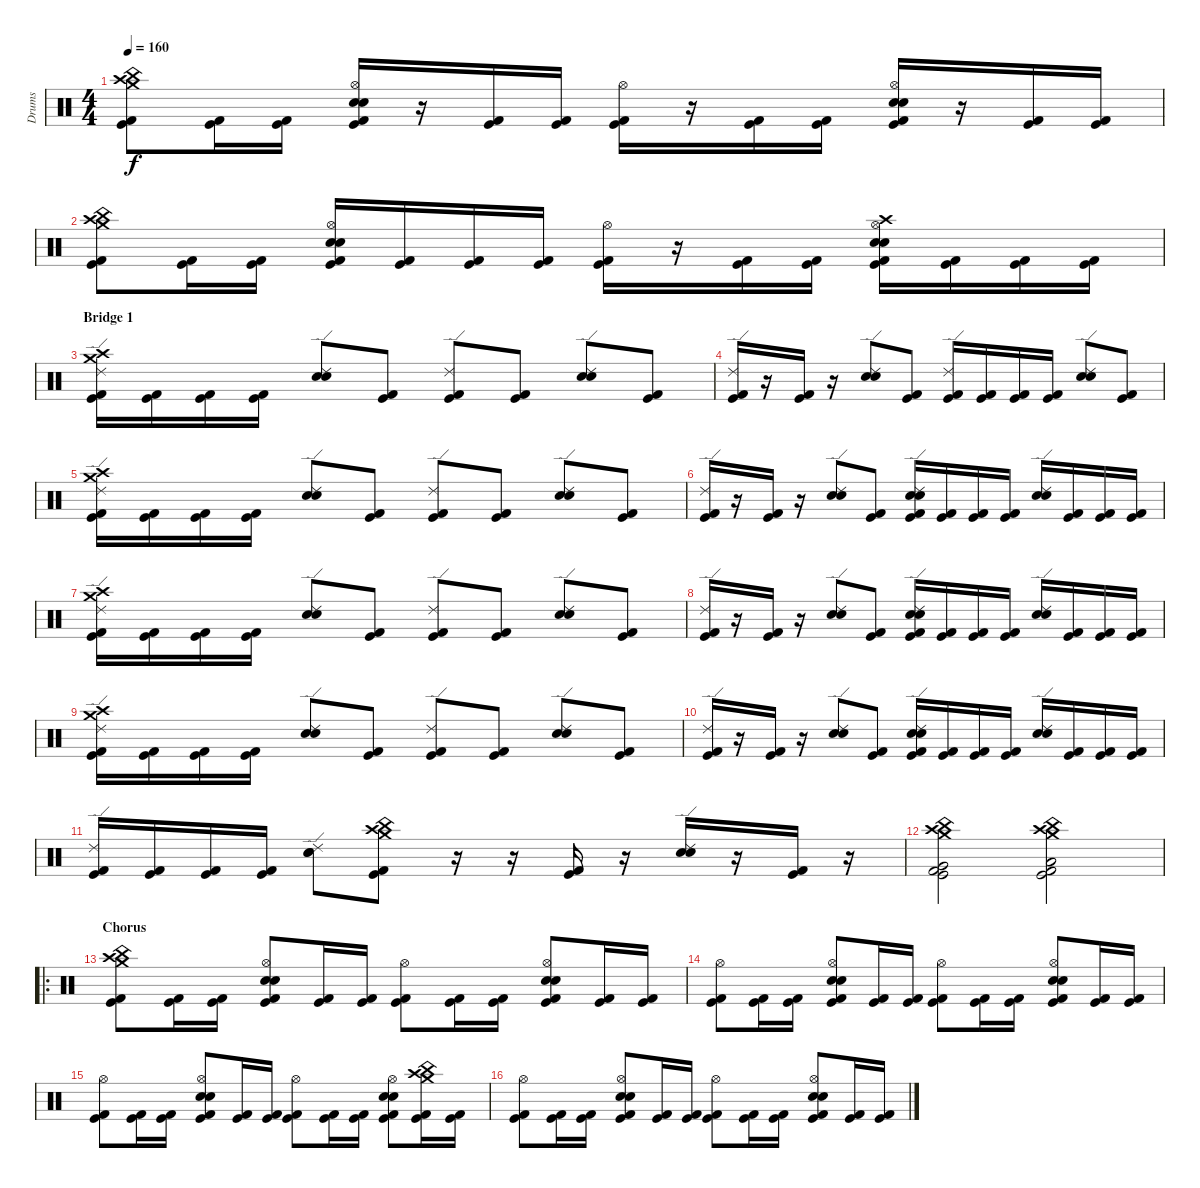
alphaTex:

\track ("Drums" "Drums") {instrument percussion}
\staff {score}
\articulation defaults
\ts (4 4)
\tempo 160
\clef neutral
\ks c
("Crash medium (hit)" "Crash high (hit)" "China (hit)" "Kick (hit)" "Kick (hit) 2").8{dy f} ("Kick (hit) 2" "Kick (hit)").16 ("Kick (hit) 2" "Kick (hit)").16 ("Hi-Hat (open)" "Electric Snare (hit)" "Snare (hit) 2" "Kick (hit) 2" "Kick (hit)").16 r.16 ("Kick (hit) 2" "Kick (hit)").16 ("Kick (hit) 2" "Kick (hit)").16 ("Hi-Hat (open)" "Kick (hit) 2" "Kick (hit)").16 r.16 ("Kick (hit) 2" "Kick (hit)").16 ("Kick (hit) 2" "Kick (hit)").16 ("Hi-Hat (open)" "Electric Snare (hit)" "Snare (hit) 2" "Kick (hit) 2" "Kick (hit)").16 r.16 ("Kick (hit) 2" "Kick (hit)").16 ("Kick (hit) 2" "Kick (hit)").16 |
("Crash medium (hit)" "Crash high (hit)" "China (hit)" "Kick (hit) 2" "Kick (hit)").8 ("Kick (hit) 2" "Kick (hit)").16 ("Kick (hit) 2" "Kick (hit)").16 ("Hi-Hat (open)" "Snare (hit) 2" "Electric Snare (hit)" "Kick (hit) 2" "Kick (hit)").16 ("Kick (hit) 2" "Kick (hit)").16 ("Kick (hit) 2" "Kick (hit)").16 ("Kick (hit) 2" "Kick (hit)").16 ("Hi-Hat (open)" "Kick (hit) 2" "Kick (hit)").16 r.16 ("Kick (hit) 2" "Kick (hit)").16 ("Kick (hit) 2" "Kick (hit)").16 ("Crash high (hit)" "Hi-Hat (open)" "Snare (hit) 2" "Electric Snare (hit)" "Kick (hit) 2" "Kick (hit)").16 ("Kick (hit) 2" "Kick (hit)").16 ("Kick (hit) 2" "Kick (hit)").16 ("Kick (hit) 2" "Kick (hit)").16 |
\section ("" "Bridge 1")
("Crash high (hit)" "Crash medium (hit)" "Ride (edge) 2" "Kick (hit) 2" "Kick (hit)").16 ("Kick (hit) 2" "Kick (hit)").16 ("Kick (hit) 2" "Kick (hit)").16 ("Kick (hit) 2" "Kick (hit)").16 ("Ride (edge) 2" "Electric Snare (hit)" "Snare (hit) 2").8 ("Kick (hit) 2" "Kick (hit)").8 ("Ride (edge) 2" "Kick (hit) 2" "Kick (hit)").8 ("Kick (hit) 2" "Kick (hit)").8 ("Ride (edge) 2" "Electric Snare (hit)" "Snare (hit) 2").8 ("Kick (hit) 2" "Kick (hit)").8 |
("Ride (edge) 2" "Kick (hit) 2" "Kick (hit)").16 r.16 ("Kick (hit) 2" "Kick (hit)").16 r.16 ("Ride (edge) 2" "Electric Snare (hit)" "Snare (hit) 2").8 ("Kick (hit) 2" "Kick (hit)").8 ("Ride (edge) 2" "Kick (hit) 2" "Kick (hit)").16 ("Kick (hit) 2" "Kick (hit)").16 ("Kick (hit)" "Kick (hit) 2").16 ("Kick (hit)" "Kick (hit) 2").16 ("Ride (edge) 2" "Electric Snare (hit)" "Snare (hit) 2").8 ("Kick (hit) 2" "Kick (hit)").8 |
("Crash high (hit)" "Crash medium (hit)" "Ride (edge) 2" "Kick (hit) 2" "Kick (hit)").16 ("Kick (hit) 2" "Kick (hit)").16 ("Kick (hit) 2" "Kick (hit)").16 ("Kick (hit) 2" "Kick (hit)").16 ("Ride (edge) 2" "Electric Snare (hit)" "Snare (hit) 2").8 ("Kick (hit) 2" "Kick (hit)").8 ("Ride (edge) 2" "Kick (hit) 2" "Kick (hit)").8 ("Kick (hit) 2" "Kick (hit)").8 ("Ride (edge) 2" "Electric Snare (hit)" "Snare (hit) 2").8 ("Kick (hit) 2" "Kick (hit)").8 |
("Ride (edge) 2" "Kick (hit) 2" "Kick (hit)").16 r.16 ("Kick (hit) 2" "Kick (hit)").16 r.16 ("Ride (edge) 2" "Electric Snare (hit)" "Snare (hit) 2").8 ("Kick (hit) 2" "Kick (hit)").8 ("Ride (edge) 2" "Electric Snare (hit)" "Snare (hit) 2" "Kick (hit) 2" "Kick (hit)").16 ("Kick (hit) 2" "Kick (hit)").16 ("Kick (hit)" "Kick (hit) 2").16 ("Kick (hit)" "Kick (hit) 2").16 ("Ride (edge) 2" "Electric Snare (hit)" "Snare (hit) 2").16 ("Kick (hit) 2" "Kick (hit)").16 ("Kick (hit) 2" "Kick (hit)").16 ("Kick (hit) 2" "Kick (hit)").16 |
("Crash high (hit)" "Crash medium (hit)" "Ride (edge) 2" "Kick (hit) 2" "Kick (hit)").16 ("Kick (hit) 2" "Kick (hit)").16 ("Kick (hit) 2" "Kick (hit)").16 ("Kick (hit) 2" "Kick (hit)").16 ("Ride (edge) 2" "Electric Snare (hit)" "Snare (hit) 2").8 ("Kick (hit) 2" "Kick (hit)").8 ("Ride (edge) 2" "Kick (hit) 2" "Kick (hit)").8 ("Kick (hit) 2" "Kick (hit)").8 ("Ride (edge) 2" "Electric Snare (hit)" "Snare (hit) 2").8 ("Kick (hit) 2" "Kick (hit)").8 |
("Ride (edge) 2" "Kick (hit) 2" "Kick (hit)").16 r.16 ("Kick (hit) 2" "Kick (hit)").16 r.16 ("Ride (edge) 2" "Electric Snare (hit)" "Snare (hit) 2").8 ("Kick (hit) 2" "Kick (hit)").8 ("Ride (edge) 2" "Electric Snare (hit)" "Snare (hit) 2" "Kick (hit) 2" "Kick (hit)").16 ("Kick (hit) 2" "Kick (hit)").16 ("Kick (hit)" "Kick (hit) 2").16 ("Kick (hit)" "Kick (hit) 2").16 ("Ride (edge) 2" "Electric Snare (hit)" "Snare (hit) 2").16 ("Kick (hit) 2" "Kick (hit)").16 ("Kick (hit) 2" "Kick (hit)").16 ("Kick (hit) 2" "Kick (hit)").16 |
("Crash high (hit)" "Crash medium (hit)" "Ride (edge) 2" "Kick (hit) 2" "Kick (hit)").16 ("Kick (hit) 2" "Kick (hit)").16 ("Kick (hit) 2" "Kick (hit)").16 ("Kick (hit) 2" "Kick (hit)").16 ("Ride (edge) 2" "Electric Snare (hit)" "Snare (hit) 2").8 ("Kick (hit) 2" "Kick (hit)").8 ("Ride (edge) 2" "Kick (hit) 2" "Kick (hit)").8 ("Kick (hit) 2" "Kick (hit)").8 ("Ride (edge) 2" "Electric Snare (hit)" "Snare (hit) 2").8 ("Kick (hit) 2" "Kick (hit)").8 |
("Ride (edge) 2" "Kick (hit) 2" "Kick (hit)").16 r.16 ("Kick (hit) 2" "Kick (hit)").16 r.16 ("Ride (edge) 2" "Electric Snare (hit)" "Snare (hit) 2").8 ("Kick (hit) 2" "Kick (hit)").8 ("Ride (edge) 2" "Electric Snare (hit)" "Snare (hit) 2" "Kick (hit) 2" "Kick (hit)").16 ("Kick (hit) 2" "Kick (hit)").16 ("Kick (hit)" "Kick (hit) 2").16 ("Kick (hit)" "Kick (hit) 2").16 ("Ride (edge) 2" "Electric Snare (hit)" "Snare (hit) 2").16 ("Kick (hit) 2" "Kick (hit)").16 ("Kick (hit) 2" "Kick (hit)").16 ("Kick (hit) 2" "Kick (hit)").16 |
("Ride (edge) 2" "Kick (hit) 2" "Kick (hit)").16 ("Kick (hit) 2" "Kick (hit)").16 ("Kick (hit) 2" "Kick (hit)").16 ("Kick (hit) 2" "Kick (hit)").16 ("Ride (edge) 2" "Electric Snare (hit)" "Snare (hit) 2").8 ("China (hit)" "Crash high (hit)" "Crash medium (hit)" "Kick (hit) 2" "Kick (hit)").8 r.16 r.16 ("Kick (hit) 2" "Kick (hit)").16 r.16 ("Ride (edge) 2" "Electric Snare (hit)" "Snare (hit) 2").16 r.16 ("Kick (hit) 2" "Kick (hit)").16 r.16 |
("Crash medium (hit)" "Crash high (hit)" "China (hit)" "Very Low Tom (hit)" "Kick (hit)" "Kick (hit) 2").2 ("Crash high (hit)" "Crash medium (hit)" "China (hit)" "Low Tom (hit)" "Kick (hit) 2" "Kick (hit)").2 |
\ro
\section ("" "Chorus")
("Crash high (hit)" "Crash medium (hit)" "China (hit)" "Kick (hit) 2" "Kick (hit)").8 ("Kick (hit) 2" "Kick (hit)").16 ("Kick (hit) 2" "Kick (hit)").16 ("Hi-Hat (open)" "Electric Snare (hit)" "Snare (hit) 2" "Kick (hit) 2" "Kick (hit)").8 ("Kick (hit) 2" "Kick (hit)").16 ("Kick (hit) 2" "Kick (hit)").16 ("Hi-Hat (open)" "Kick (hit) 2" "Kick (hit)").8 ("Kick (hit) 2" "Kick (hit)").16 ("Kick (hit) 2" "Kick (hit)").16 ("Hi-Hat (open)" "Electric Snare (hit)" "Snare (hit) 2" "Kick (hit) 2" "Kick (hit)").8 ("Kick (hit) 2" "Kick (hit)").16 ("Kick (hit) 2" "Kick (hit)").16 |
("Hi-Hat (open)" "Kick (hit) 2" "Kick (hit)").8 ("Kick (hit) 2" "Kick (hit)").16 ("Kick (hit) 2" "Kick (hit)").16 ("Hi-Hat (open)" "Electric Snare (hit)" "Snare (hit) 2" "Kick (hit) 2" "Kick (hit)").8 ("Kick (hit) 2" "Kick (hit)").16 ("Kick (hit) 2" "Kick (hit)").16 ("Hi-Hat (open)" "Kick (hit) 2" "Kick (hit)").8 ("Kick (hit) 2" "Kick (hit)").16 ("Kick (hit) 2" "Kick (hit)").16 ("Hi-Hat (open)" "Electric Snare (hit)" "Snare (hit) 2" "Kick (hit) 2" "Kick (hit)").8 ("Kick (hit) 2" "Kick (hit)").16 ("Kick (hit) 2" "Kick (hit)").16 |
("Hi-Hat (open)" "Kick (hit) 2" "Kick (hit)").8 ("Kick (hit) 2" "Kick (hit)").16 ("Kick (hit) 2" "Kick (hit)").16 ("Hi-Hat (open)" "Electric Snare (hit)" "Snare (hit) 2" "Kick (hit) 2" "Kick (hit)").8 ("Kick (hit) 2" "Kick (hit)").16 ("Kick (hit) 2" "Kick (hit)").16 ("Hi-Hat (open)" "Kick (hit) 2" "Kick (hit)").8 ("Kick (hit) 2" "Kick (hit)").16 ("Kick (hit) 2" "Kick (hit)").16 ("Hi-Hat (open)" "Electric Snare (hit)" "Snare (hit) 2" "Kick (hit) 2" "Kick (hit)").8 ("Crash high (hit)" "China (hit)" "Crash medium (hit)" "Kick (hit) 2" "Kick (hit)").16 ("Kick (hit) 2" "Kick (hit)").16 |
("Hi-Hat (open)" "Kick (hit) 2" "Kick (hit)").8 ("Kick (hit) 2" "Kick (hit)").16 ("Kick (hit) 2" "Kick (hit)").16 ("Hi-Hat (open)" "Electric Snare (hit)" "Snare (hit) 2" "Kick (hit) 2" "Kick (hit)").8 ("Kick (hit) 2" "Kick (hit)").16 ("Kick (hit) 2" "Kick (hit)").16 ("Hi-Hat (open)" "Kick (hit) 2" "Kick (hit)").8 ("Kick (hit) 2" "Kick (hit)").16 ("Kick (hit) 2" "Kick (hit)").16 ("Hi-Hat (open)" "Electric Snare (hit)" "Snare (hit) 2" "Kick (hit) 2" "Kick (hit)").8 ("Kick (hit) 2" "Kick (hit)").16 ("Kick (hit) 2" "Kick (hit)").16
